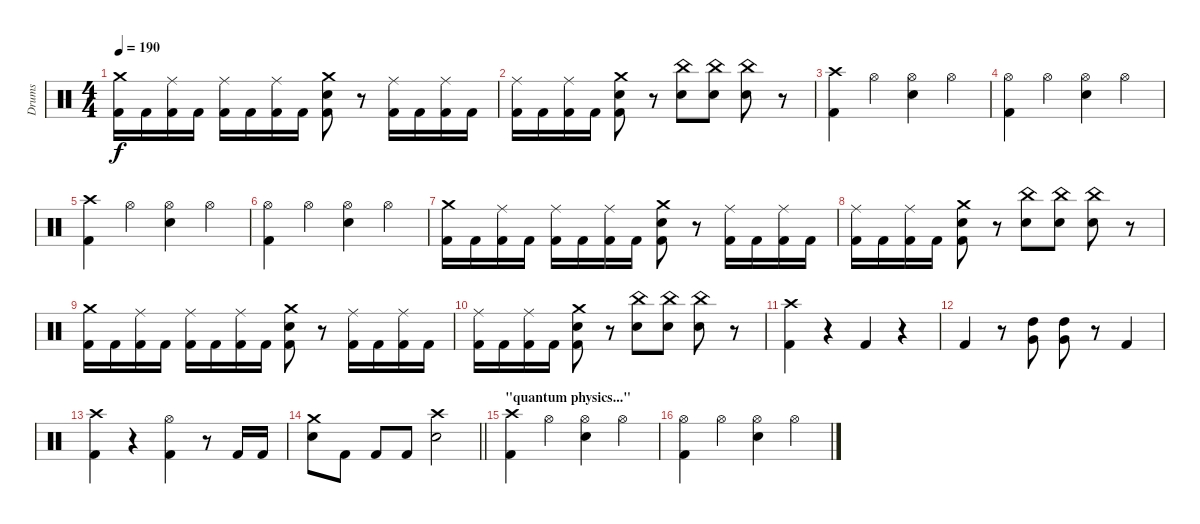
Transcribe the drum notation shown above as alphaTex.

\track ("Drums" "Drums") {instrument percussion}
\staff {score}
\articulation defaults
\ts (4 4)
\tempo 190
\clef neutral
\ks c
("Crash medium (hit)" "Kick (hit) 2").16{dy f} "Kick (hit) 2".16 ("Ride (middle)" "Kick (hit) 2").16 "Kick (hit) 2".16 ("Ride (middle)" "Kick (hit) 2").16 "Kick (hit) 2".16 ("Ride (middle)" "Kick (hit) 2").16 "Kick (hit) 2".16 ("Crash medium (hit)" "Snare (hit) 2" "Kick (hit) 2").8 r.8 ("Ride (middle)" "Kick (hit) 2").16 "Kick (hit) 2".16 ("Ride (middle)" "Kick (hit) 2").16 "Kick (hit) 2".16 |
("Ride (middle)" "Kick (hit) 2").16 "Kick (hit) 2".16 ("Ride (middle)" "Kick (hit) 2").16 "Kick (hit) 2".16 ("Crash medium (hit)" "Snare (hit) 2" "Kick (hit) 2").8 r.8 ("China (hit)" "Snare (hit) 2").8 ("China (hit)" "Snare (hit) 2").8 ("China (hit)" "Snare (hit) 2").8 r.8 |
("Crash high (hit)" "Kick (hit) 2").4 "Hi-Hat (open)".4 ("Hi-Hat (open)" "Snare (hit) 2").4 "Hi-Hat (open)".4 |
("Hi-Hat (open)" "Kick (hit) 2").4 "Hi-Hat (open)".4 ("Hi-Hat (open)" "Snare (hit) 2").4 "Hi-Hat (open)".4 |
("Crash high (hit)" "Kick (hit) 2").4 "Hi-Hat (open)".4 ("Hi-Hat (open)" "Snare (hit) 2").4 "Hi-Hat (open)".4 |
("Hi-Hat (open)" "Kick (hit) 2").4 "Hi-Hat (open)".4 ("Hi-Hat (open)" "Snare (hit) 2").4 "Hi-Hat (open)".4 |
("Crash medium (hit)" "Kick (hit) 2").16 "Kick (hit) 2".16 ("Ride (middle)" "Kick (hit) 2").16 "Kick (hit) 2".16 ("Ride (middle)" "Kick (hit) 2").16 "Kick (hit) 2".16 ("Ride (middle)" "Kick (hit) 2").16 "Kick (hit) 2".16 ("Crash medium (hit)" "Snare (hit) 2" "Kick (hit) 2").8 r.8 ("Ride (middle)" "Kick (hit) 2").16 "Kick (hit) 2".16 ("Ride (middle)" "Kick (hit) 2").16 "Kick (hit) 2".16 |
("Ride (middle)" "Kick (hit) 2").16 "Kick (hit) 2".16 ("Ride (middle)" "Kick (hit) 2").16 "Kick (hit) 2".16 ("Crash medium (hit)" "Snare (hit) 2" "Kick (hit) 2").8 r.8 ("China (hit)" "Snare (hit) 2").8 ("China (hit)" "Snare (hit) 2").8 ("China (hit)" "Snare (hit) 2").8 r.8 |
("Crash medium (hit)" "Kick (hit) 2").16 "Kick (hit) 2".16 ("Ride (middle)" "Kick (hit) 2").16 "Kick (hit) 2".16 ("Ride (middle)" "Kick (hit) 2").16 "Kick (hit) 2".16 ("Ride (middle)" "Kick (hit) 2").16 "Kick (hit) 2".16 ("Crash medium (hit)" "Snare (hit) 2" "Kick (hit) 2").8 r.8 ("Ride (middle)" "Kick (hit) 2").16 "Kick (hit) 2".16 ("Ride (middle)" "Kick (hit) 2").16 "Kick (hit) 2".16 |
("Ride (middle)" "Kick (hit) 2").16 "Kick (hit) 2".16 ("Ride (middle)" "Kick (hit) 2").16 "Kick (hit) 2".16 ("Crash medium (hit)" "Snare (hit) 2" "Kick (hit) 2").8 r.8 ("China (hit)" "Snare (hit) 2").8 ("China (hit)" "Snare (hit) 2").8 ("China (hit)" "Snare (hit) 2").8 r.8 |
("Crash high (hit)" "Kick (hit) 2").4 r.4 "Kick (hit) 2".4 r.4 |
"Kick (hit) 2".4 r.8 ("High Tom (hit)" "Very Low Tom (hit)").8 ("High Tom (hit)" "Very Low Tom (hit)").8 r.8 "Kick (hit) 2".4 |
("Crash high (hit)" "Kick (hit) 2").4 r.4 ("Hi-Hat (open)" "Kick (hit) 2").4 r.8 "Kick (hit) 2".16 "Kick (hit) 2".16 |
\barLineRight lightlight
("Crash medium (hit)" "Snare (hit) 2").8 "Kick (hit) 2".8 "Kick (hit) 2".8 "Kick (hit) 2".8 ("Crash high (hit)" "Snare (hit) 2").2 |
\section ("" "\"quantum physics...\"")
("Crash high (hit)" "Kick (hit) 2").4 "Hi-Hat (open)".4 ("Hi-Hat (open)" "Snare (hit) 2").4 "Hi-Hat (open)".4 |
("Hi-Hat (open)" "Kick (hit) 2").4 "Hi-Hat (open)".4 ("Hi-Hat (open)" "Snare (hit) 2").4 "Hi-Hat (open)".4
